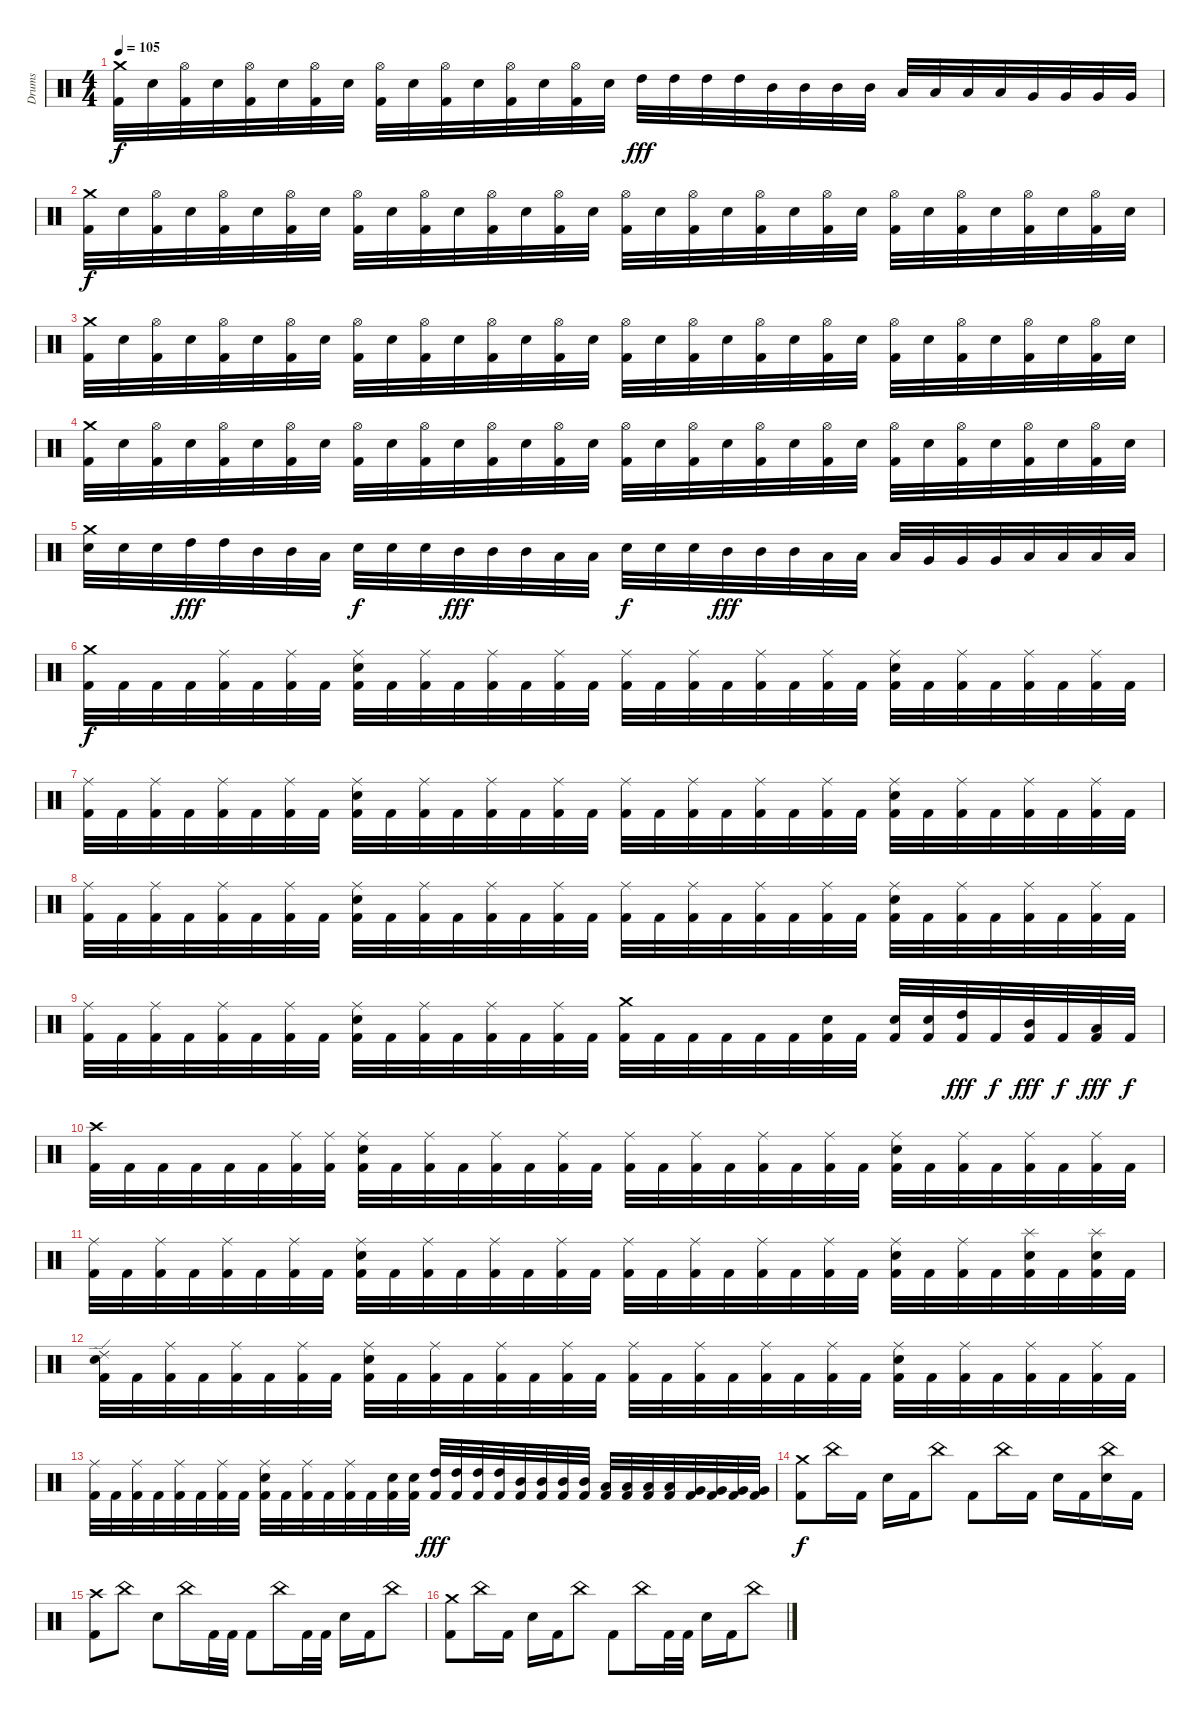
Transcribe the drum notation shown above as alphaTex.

\track ("Drums" "Drums") {instrument percussion}
\staff {score}
\articulation defaults
\ts (4 4)
\tempo 105
\clef neutral
\ks c
("Kick (hit) 2" "Crash medium (hit)").32{dy f} "Electric Snare (hit)".32 ("Kick (hit) 2" "Hi-Hat (open)").32 "Electric Snare (hit)".32 ("Kick (hit) 2" "Hi-Hat (open)").32 "Electric Snare (hit)".32 ("Kick (hit) 2" "Hi-Hat (open)").32 "Electric Snare (hit)".32 ("Kick (hit) 2" "Hi-Hat (open)").32 "Electric Snare (hit)".32 ("Kick (hit) 2" "Hi-Hat (open)").32 "Electric Snare (hit)".32 ("Kick (hit) 2" "Hi-Hat (open)").32 "Electric Snare (hit)".32 ("Kick (hit) 2" "Hi-Hat (open)").32 "Electric Snare (hit)".32 "High Tom (hit)".32{dy fff} "High Tom (hit)".32 "High Tom (hit)".32 "High Tom (hit)".32 "Mid Tom (hit)".32 "Mid Tom (hit)".32 "Mid Tom (hit)".32 "Mid Tom (hit)".32 "Low Tom (hit)".32 "Low Tom (hit)".32 "Low Tom (hit)".32 "Low Tom (hit)".32 "Very Low Tom (hit)".32 "Very Low Tom (hit)".32 "Very Low Tom (hit)".32 "Very Low Tom (hit)".32 |
("Kick (hit) 2" "Crash medium (hit)").32{dy f} "Electric Snare (hit)".32 ("Kick (hit) 2" "Hi-Hat (open)").32 "Electric Snare (hit)".32 ("Kick (hit) 2" "Hi-Hat (open)").32 "Electric Snare (hit)".32 ("Kick (hit) 2" "Hi-Hat (open)").32 "Electric Snare (hit)".32 ("Kick (hit) 2" "Hi-Hat (open)").32 "Electric Snare (hit)".32 ("Kick (hit) 2" "Hi-Hat (open)").32 "Electric Snare (hit)".32 ("Kick (hit) 2" "Hi-Hat (open)").32 "Electric Snare (hit)".32 ("Kick (hit) 2" "Hi-Hat (open)").32 "Electric Snare (hit)".32 ("Kick (hit) 2" "Hi-Hat (open)").32 "Electric Snare (hit)".32 ("Kick (hit) 2" "Hi-Hat (open)").32 "Electric Snare (hit)".32 ("Kick (hit) 2" "Hi-Hat (open)").32 "Electric Snare (hit)".32 ("Kick (hit) 2" "Hi-Hat (open)").32 "Electric Snare (hit)".32 ("Kick (hit) 2" "Hi-Hat (open)").32 "Electric Snare (hit)".32 ("Kick (hit) 2" "Hi-Hat (open)").32 "Electric Snare (hit)".32 ("Kick (hit) 2" "Hi-Hat (open)").32 "Electric Snare (hit)".32 ("Kick (hit) 2" "Hi-Hat (open)").32 "Electric Snare (hit)".32 |
("Kick (hit) 2" "Crash medium (hit)").32 "Electric Snare (hit)".32 ("Kick (hit) 2" "Hi-Hat (open)").32 "Electric Snare (hit)".32 ("Kick (hit) 2" "Hi-Hat (open)").32 "Electric Snare (hit)".32 ("Kick (hit) 2" "Hi-Hat (open)").32 "Electric Snare (hit)".32 ("Kick (hit) 2" "Hi-Hat (open)").32 "Electric Snare (hit)".32 ("Kick (hit) 2" "Hi-Hat (open)").32 "Electric Snare (hit)".32 ("Kick (hit) 2" "Hi-Hat (open)").32 "Electric Snare (hit)".32 ("Kick (hit) 2" "Hi-Hat (open)").32 "Electric Snare (hit)".32 ("Kick (hit) 2" "Hi-Hat (open)").32 "Electric Snare (hit)".32 ("Kick (hit) 2" "Hi-Hat (open)").32 "Electric Snare (hit)".32 ("Kick (hit) 2" "Hi-Hat (open)").32 "Electric Snare (hit)".32 ("Kick (hit) 2" "Hi-Hat (open)").32 "Electric Snare (hit)".32 ("Kick (hit) 2" "Hi-Hat (open)").32 "Electric Snare (hit)".32 ("Kick (hit) 2" "Hi-Hat (open)").32 "Electric Snare (hit)".32 ("Kick (hit) 2" "Hi-Hat (open)").32 "Electric Snare (hit)".32 ("Kick (hit) 2" "Hi-Hat (open)").32 "Electric Snare (hit)".32 |
("Kick (hit) 2" "Crash medium (hit)").32 "Electric Snare (hit)".32 ("Kick (hit) 2" "Hi-Hat (open)").32 "Electric Snare (hit)".32 ("Kick (hit) 2" "Hi-Hat (open)").32 "Electric Snare (hit)".32 ("Kick (hit) 2" "Hi-Hat (open)").32 "Electric Snare (hit)".32 ("Kick (hit) 2" "Hi-Hat (open)").32 "Electric Snare (hit)".32 ("Kick (hit) 2" "Hi-Hat (open)").32 "Electric Snare (hit)".32 ("Kick (hit) 2" "Hi-Hat (open)").32 "Electric Snare (hit)".32 ("Kick (hit) 2" "Hi-Hat (open)").32 "Electric Snare (hit)".32 ("Kick (hit) 2" "Hi-Hat (open)").32 "Electric Snare (hit)".32 ("Kick (hit) 2" "Hi-Hat (open)").32 "Electric Snare (hit)".32 ("Kick (hit) 2" "Hi-Hat (open)").32 "Electric Snare (hit)".32 ("Kick (hit) 2" "Hi-Hat (open)").32 "Electric Snare (hit)".32 ("Kick (hit) 2" "Hi-Hat (open)").32 "Electric Snare (hit)".32 ("Kick (hit) 2" "Hi-Hat (open)").32 "Electric Snare (hit)".32 ("Kick (hit) 2" "Hi-Hat (open)").32 "Electric Snare (hit)".32 ("Kick (hit) 2" "Hi-Hat (open)").32 "Electric Snare (hit)".32 |
("Electric Snare (hit)" "Crash medium (hit)").32 "Electric Snare (hit)".32 "Electric Snare (hit)".32 "High Tom (hit)".32{dy fff} "High Tom (hit)".32 "Mid Tom (hit)".32 "Mid Tom (hit)".32 "Low Tom (hit)".32 "Electric Snare (hit)".32{dy f} "Electric Snare (hit)".32 "Electric Snare (hit)".32 "Mid Tom (hit)".32{dy fff} "Mid Tom (hit)".32 "Mid Tom (hit)".32 "Low Tom (hit)".32 "Low Tom (hit)".32 "Electric Snare (hit)".32{dy f} "Electric Snare (hit)".32 "Electric Snare (hit)".32 "Mid Tom (hit)".32{dy fff} "Mid Tom (hit)".32 "Mid Tom (hit)".32 "Low Tom (hit)".32 "Low Tom (hit)".32 "Low Tom (hit)".32 "Very Low Tom (hit)".32 "Very Low Tom (hit)".32 "Very Low Tom (hit)".32 "Low Floor Tom (hit)".32 "Low Floor Tom (hit)".32 "Low Floor Tom (hit)".32 "Low Floor Tom (hit)".32 |
("Kick (hit) 2" "Crash medium (hit)").32{dy f} "Kick (hit) 2".32 "Kick (hit) 2".32 "Kick (hit) 2".32 ("Kick (hit) 2" "Ride (middle)").32 "Kick (hit) 2".32 ("Kick (hit) 2" "Ride (middle)").32 "Kick (hit) 2".32 ("Kick (hit) 2" "Electric Snare (hit)" "Ride (middle)").32 "Kick (hit) 2".32 ("Kick (hit) 2" "Ride (middle)").32 "Kick (hit) 2".32 ("Kick (hit) 2" "Ride (middle)").32 "Kick (hit) 2".32 ("Kick (hit) 2" "Ride (middle)").32 "Kick (hit) 2".32 ("Kick (hit) 2" "Ride (middle)").32 "Kick (hit) 2".32 ("Kick (hit) 2" "Ride (middle)").32 "Kick (hit) 2".32 ("Kick (hit) 2" "Ride (middle)").32 "Kick (hit) 2".32 ("Kick (hit) 2" "Ride (middle)").32 "Kick (hit) 2".32 ("Kick (hit) 2" "Electric Snare (hit)" "Ride (middle)").32 "Kick (hit) 2".32 ("Kick (hit) 2" "Ride (middle)").32 "Kick (hit) 2".32 ("Kick (hit) 2" "Ride (middle)").32 "Kick (hit) 2".32 ("Kick (hit) 2" "Ride (middle)").32 "Kick (hit) 2".32 |
("Kick (hit) 2" "Ride (middle)").32 "Kick (hit) 2".32 ("Kick (hit) 2" "Ride (middle)").32 "Kick (hit) 2".32 ("Kick (hit) 2" "Ride (middle)").32 "Kick (hit) 2".32 ("Kick (hit) 2" "Ride (middle)").32 "Kick (hit) 2".32 ("Kick (hit) 2" "Electric Snare (hit)" "Ride (middle)").32 "Kick (hit) 2".32 ("Kick (hit) 2" "Ride (middle)").32 "Kick (hit) 2".32 ("Kick (hit) 2" "Ride (middle)").32 "Kick (hit) 2".32 ("Kick (hit) 2" "Ride (middle)").32 "Kick (hit) 2".32 ("Kick (hit) 2" "Ride (middle)").32 "Kick (hit) 2".32 ("Kick (hit) 2" "Ride (middle)").32 "Kick (hit) 2".32 ("Kick (hit) 2" "Ride (middle)").32 "Kick (hit) 2".32 ("Kick (hit) 2" "Ride (middle)").32 "Kick (hit) 2".32 ("Kick (hit) 2" "Electric Snare (hit)" "Ride (middle)").32 "Kick (hit) 2".32 ("Kick (hit) 2" "Ride (middle)").32 "Kick (hit) 2".32 ("Kick (hit) 2" "Ride (middle)").32 "Kick (hit) 2".32 ("Kick (hit) 2" "Ride (middle)").32 "Kick (hit) 2".32 |
("Kick (hit) 2" "Ride (middle)").32 "Kick (hit) 2".32 ("Kick (hit) 2" "Ride (middle)").32 "Kick (hit) 2".32 ("Kick (hit) 2" "Ride (middle)").32 "Kick (hit) 2".32 ("Kick (hit) 2" "Ride (middle)").32 "Kick (hit) 2".32 ("Kick (hit) 2" "Electric Snare (hit)" "Ride (middle)").32 "Kick (hit) 2".32 ("Kick (hit) 2" "Ride (middle)").32 "Kick (hit) 2".32 ("Kick (hit) 2" "Ride (middle)").32 "Kick (hit) 2".32 ("Kick (hit) 2" "Ride (middle)").32 "Kick (hit) 2".32 ("Kick (hit) 2" "Ride (middle)").32 "Kick (hit) 2".32 ("Kick (hit) 2" "Ride (middle)").32 "Kick (hit) 2".32 ("Kick (hit) 2" "Ride (middle)").32 "Kick (hit) 2".32 ("Kick (hit) 2" "Ride (middle)").32 "Kick (hit) 2".32 ("Kick (hit) 2" "Electric Snare (hit)" "Ride (middle)").32 "Kick (hit) 2".32 ("Kick (hit) 2" "Ride (middle)").32 "Kick (hit) 2".32 ("Kick (hit) 2" "Ride (middle)").32 "Kick (hit) 2".32 ("Kick (hit) 2" "Ride (middle)").32 "Kick (hit) 2".32 |
("Kick (hit) 2" "Ride (middle)").32 "Kick (hit) 2".32 ("Kick (hit) 2" "Ride (middle)").32 "Kick (hit) 2".32 ("Kick (hit) 2" "Ride (middle)").32 "Kick (hit) 2".32 ("Kick (hit) 2" "Ride (middle)").32 "Kick (hit) 2".32 ("Kick (hit) 2" "Electric Snare (hit)" "Ride (middle)").32 "Kick (hit) 2".32 ("Kick (hit) 2" "Ride (middle)").32 "Kick (hit) 2".32 ("Kick (hit) 2" "Ride (middle)").32 "Kick (hit) 2".32 ("Kick (hit) 2" "Ride (middle)").32 "Kick (hit) 2".32 ("Kick (hit) 2" "Crash medium (hit)").32 "Kick (hit) 2".32 "Kick (hit) 2".32 "Kick (hit) 2".32 "Kick (hit) 2".32 "Kick (hit) 2".32 ("Kick (hit) 2" "Electric Snare (hit)").32 "Kick (hit) 2".32 ("Kick (hit) 2" "Electric Snare (hit)").32 ("Kick (hit) 2" "Electric Snare (hit)").32 ("Kick (hit) 2" "High Tom (hit)").32{dy fff} "Kick (hit) 2".32{dy f} ("Kick (hit) 2" "Mid Tom (hit)").32{dy fff} "Kick (hit) 2".32{dy f} ("Kick (hit) 2" "Low Tom (hit)").32{dy fff} "Kick (hit) 2".32{dy f} |
("Kick (hit) 2" "Crash high (hit)").32 "Kick (hit) 2".32 "Kick (hit) 2".32 "Kick (hit) 2".32 "Kick (hit) 2".32 "Kick (hit) 2".32 ("Kick (hit) 2" "Ride (middle)").32 ("Kick (hit) 2" "Ride (middle)").32 ("Kick (hit) 2" "Electric Snare (hit)" "Ride (middle)").32 "Kick (hit) 2".32 ("Kick (hit) 2" "Ride (middle)").32 "Kick (hit) 2".32 ("Kick (hit) 2" "Ride (middle)").32 "Kick (hit) 2".32 ("Kick (hit) 2" "Ride (middle)").32 "Kick (hit) 2".32 ("Kick (hit) 2" "Ride (middle)").32 "Kick (hit) 2".32 ("Kick (hit) 2" "Ride (middle)").32 "Kick (hit) 2".32 ("Kick (hit) 2" "Ride (middle)").32 "Kick (hit) 2".32 ("Kick (hit) 2" "Ride (middle)").32 "Kick (hit) 2".32 ("Kick (hit) 2" "Electric Snare (hit)" "Ride (middle)").32 "Kick (hit) 2".32 ("Kick (hit) 2" "Ride (middle)").32 "Kick (hit) 2".32 ("Kick (hit) 2" "Ride (middle)").32 "Kick (hit) 2".32 ("Kick (hit) 2" "Ride (middle)").32 "Kick (hit) 2".32 |
("Kick (hit) 2" "Ride (middle)").32 "Kick (hit) 2".32 ("Kick (hit) 2" "Ride (middle)").32 "Kick (hit) 2".32 ("Kick (hit) 2" "Ride (middle)").32 "Kick (hit) 2".32 ("Kick (hit) 2" "Ride (middle)").32 "Kick (hit) 2".32 ("Kick (hit) 2" "Electric Snare (hit)" "Ride (middle)").32 "Kick (hit) 2".32 ("Kick (hit) 2" "Ride (middle)").32 "Kick (hit) 2".32 ("Kick (hit) 2" "Ride (middle)").32 "Kick (hit) 2".32 ("Kick (hit) 2" "Ride (middle)").32 "Kick (hit) 2".32 ("Kick (hit) 2" "Ride (middle)").32 "Kick (hit) 2".32 ("Kick (hit) 2" "Ride (middle)").32 "Kick (hit) 2".32 ("Kick (hit) 2" "Ride (middle)").32 "Kick (hit) 2".32 ("Kick (hit) 2" "Ride (middle)").32 "Kick (hit) 2".32 ("Kick (hit) 2" "Electric Snare (hit)" "Ride (middle)").32 "Kick (hit) 2".32 ("Kick (hit) 2" "Ride (middle)").32 "Kick (hit) 2".32 ("Kick (hit) 2" "Electric Snare (hit)" "Splash (hit)").32 "Kick (hit) 2".32 ("Kick (hit) 2" "Electric Snare (hit)" "Splash (hit)").32 "Kick (hit) 2".32 |
("Kick (hit) 2" "Electric Snare (hit)" "Ride (edge) 2").32 "Kick (hit) 2".32 ("Kick (hit) 2" "Ride (middle)").32 "Kick (hit) 2".32 ("Kick (hit) 2" "Ride (middle)").32 "Kick (hit) 2".32 ("Kick (hit) 2" "Ride (middle)").32 "Kick (hit) 2".32 ("Kick (hit) 2" "Electric Snare (hit)" "Ride (middle)").32 "Kick (hit) 2".32 ("Kick (hit) 2" "Ride (middle)").32 "Kick (hit) 2".32 ("Kick (hit) 2" "Ride (middle)").32 "Kick (hit) 2".32 ("Kick (hit) 2" "Ride (middle)").32 "Kick (hit) 2".32 ("Kick (hit) 2" "Ride (middle)").32 "Kick (hit) 2".32 ("Kick (hit) 2" "Ride (middle)").32 "Kick (hit) 2".32 ("Kick (hit) 2" "Ride (middle)").32 "Kick (hit) 2".32 ("Kick (hit) 2" "Ride (middle)").32 "Kick (hit) 2".32 ("Kick (hit) 2" "Electric Snare (hit)" "Ride (middle)").32 "Kick (hit) 2".32 ("Kick (hit) 2" "Ride (middle)").32 "Kick (hit) 2".32 ("Kick (hit) 2" "Ride (middle)").32 "Kick (hit) 2".32 ("Kick (hit) 2" "Ride (middle)").32 "Kick (hit) 2".32 |
("Kick (hit) 2" "Ride (middle)").32 "Kick (hit) 2".32 ("Kick (hit) 2" "Ride (middle)").32 "Kick (hit) 2".32 ("Kick (hit) 2" "Ride (middle)").32 "Kick (hit) 2".32 ("Kick (hit) 2" "Ride (middle)").32 "Kick (hit) 2".32 ("Kick (hit) 2" "Electric Snare (hit)" "Ride (middle)").32 "Kick (hit) 2".32 ("Kick (hit) 2" "Ride (middle)").32 "Kick (hit) 2".32 ("Kick (hit) 2" "Ride (middle)").32 "Kick (hit) 2".32 ("Kick (hit) 2" "Electric Snare (hit)").32 ("Kick (hit) 2" "Electric Snare (hit)").32 ("Kick (hit) 2" "High Tom (hit)").32{dy fff} ("Kick (hit) 2" "High Tom (hit)").32 ("Kick (hit) 2" "High Tom (hit)").32 ("Kick (hit) 2" "High Tom (hit)").32 ("Kick (hit) 2" "Mid Tom (hit)").32 ("Kick (hit) 2" "Mid Tom (hit)").32 ("Kick (hit) 2" "Mid Tom (hit)").32 ("Kick (hit) 2" "Mid Tom (hit)").32 ("Kick (hit) 2" "Low Tom (hit)").32 ("Kick (hit) 2" "Low Tom (hit)").32 ("Kick (hit) 2" "Low Tom (hit)").32 ("Kick (hit) 2" "Low Tom (hit)").32 ("Kick (hit) 2" "Very Low Tom (hit)").32 ("Kick (hit) 2" "Very Low Tom (hit)").32 ("Kick (hit) 2" "Very Low Tom (hit)").32 ("Kick (hit) 2" "Very Low Tom (hit)").32 |
("Kick (hit) 2" "Crash medium (hit)").8{dy f} "China (hit)".16 "Kick (hit) 2".16 "Electric Snare (hit)".16 "Kick (hit) 2".16 "China (hit)".8 "Kick (hit) 2".8 "China (hit)".16 "Kick (hit) 2".16 "Electric Snare (hit)".16 "Kick (hit) 2".16 ("Electric Snare (hit)" "China (hit)").16 "Kick (hit) 2".16 |
("Kick (hit) 2" "Crash high (hit)").8 "China (hit)".8 "Electric Snare (hit)".8 "China (hit)".16 "Kick (hit) 2".32 "Kick (hit) 2".32 "Kick (hit) 2".8 "China (hit)".16 "Kick (hit) 2".32 "Kick (hit) 2".32 "Electric Snare (hit)".16 "Kick (hit) 2".16 "China (hit)".8 |
("Kick (hit) 2" "Crash medium (hit)").8 "China (hit)".16 "Kick (hit) 2".16 "Electric Snare (hit)".16 "Kick (hit) 2".16 "China (hit)".8 "Kick (hit) 2".8 "China (hit)".16 "Kick (hit) 2".32 "Kick (hit) 2".32 "Electric Snare (hit)".16 "Kick (hit) 2".16 "China (hit)".8
